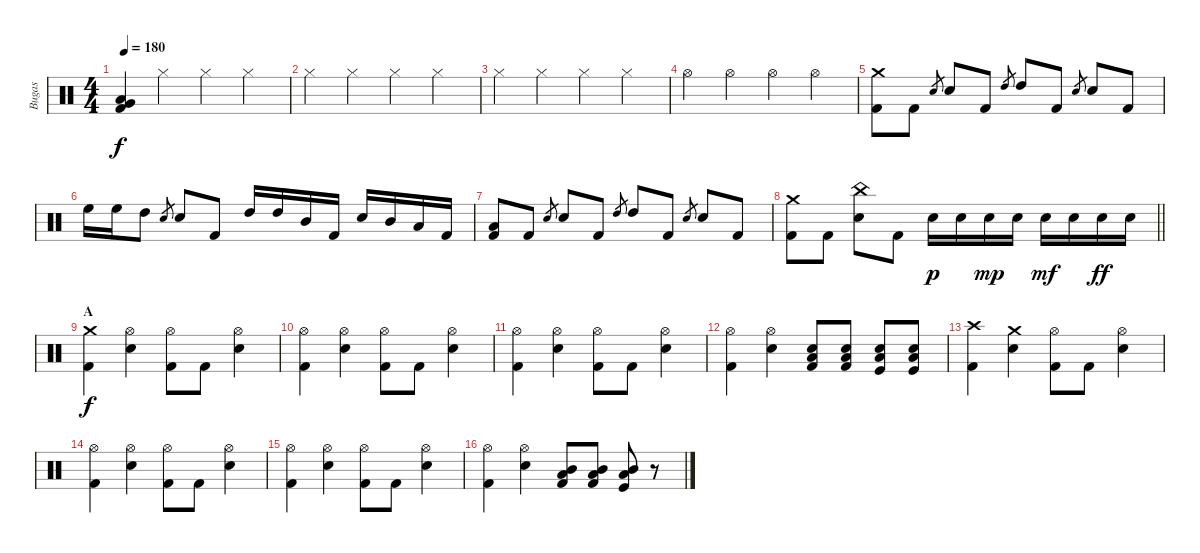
\track ("Bugas" "Bugas") {instrument percussion}
\staff {score}
\articulation defaults
\ts (4 4)
\tempo 180
\clef neutral
\ks c
("Kick (hit) 2" "Very Low Tom (hit)" "Low Tom (hit)").4{dy f} "Hi-Hat (closed)".4 "Hi-Hat (closed)".4 "Hi-Hat (closed)".4 |
"Hi-Hat (closed)".4 "Hi-Hat (closed)".4 "Hi-Hat (closed)".4 "Hi-Hat (closed)".4 |
"Hi-Hat (closed)".4 "Hi-Hat (closed)".4 "Hi-Hat (closed)".4 "Hi-Hat (closed)".4 |
"Hi-Hat (open)".4 "Hi-Hat (open)".4 "Hi-Hat (open)".4 "Hi-Hat (open)".4 |
("Crash medium (hit)" "Kick (hit) 2").8 "Kick (hit) 2".8 "Electric Snare (hit)".8{gr} "Electric Snare (hit)".8 "Kick (hit) 2".8 "High Tom (hit)".8{gr} "High Tom (hit)".8 "Kick (hit) 2".8 "Electric Snare (hit)".8{gr} "Electric Snare (hit)".8 "Kick (hit) 2".8 |
"High Floor Tom (hit)".16 "High Floor Tom (hit)".16 "High Tom (hit)".8 "Electric Snare (hit)".8{gr} "Electric Snare (hit)".8 "Kick (hit) 2".8 "High Tom (hit)".16 "High Tom (hit)".16 "Mid Tom (hit)".16 "Kick (hit) 2".16 "Electric Snare (hit)".16 "Mid Tom (hit)".16 "Low Tom (hit)".16 "Kick (hit) 2".16 |
("Kick (hit) 2" "Low Tom (hit)").8 "Kick (hit) 2".8 "Electric Snare (hit)".8{gr} "Electric Snare (hit)".8 "Kick (hit) 2".8 "High Tom (hit)".8{gr} "High Tom (hit)".8 "Kick (hit) 2".8 "Electric Snare (hit)".8{gr} "Electric Snare (hit)".8 "Kick (hit) 2".8 |
\barLineRight lightlight
("Crash medium (hit)" "Kick (hit) 2").8 "Kick (hit) 2".8 ("China (hit)" "Electric Snare (hit)").8 "Kick (hit) 2".8 "Electric Snare (hit)".16{dy p} "Electric Snare (hit)".16 "Electric Snare (hit)".16{dy mp} "Electric Snare (hit)".16 "Electric Snare (hit)".16{dy mf} "Electric Snare (hit)".16 "Electric Snare (hit)".16{dy ff} "Electric Snare (hit)".16 |
\section ("" "A")
("Crash medium (hit)" "Kick (hit) 2").4{dy f} ("Hi-Hat (open)" "Electric Snare (hit)").4 ("Hi-Hat (open)" "Kick (hit) 2").8 "Kick (hit) 2".8 ("Hi-Hat (open)" "Electric Snare (hit)").4 |
("Hi-Hat (open)" "Kick (hit) 2").4 ("Hi-Hat (open)" "Electric Snare (hit)").4 ("Hi-Hat (open)" "Kick (hit) 2").8 "Kick (hit) 2".8 ("Hi-Hat (open)" "Electric Snare (hit)").4 |
("Hi-Hat (open)" "Kick (hit) 2").4 ("Hi-Hat (open)" "Electric Snare (hit)").4 ("Hi-Hat (open)" "Kick (hit) 2").8 "Kick (hit) 2".8 ("Hi-Hat (open)" "Electric Snare (hit)").4 |
("Hi-Hat (open)" "Kick (hit) 2").4 ("Hi-Hat (open)" "Electric Snare (hit)").4 ("Electric Snare (hit)" "Low Tom (hit)" "Kick (hit) 2").8 ("Electric Snare (hit)" "Low Tom (hit)" "Kick (hit) 2").8 ("Electric Snare (hit)" "Low Tom (hit)" "Kick (hit)").8 ("Electric Snare (hit)" "Low Tom (hit)" "Kick (hit)").8 |
("Crash high (hit)" "Kick (hit) 2").4 ("Crash medium (hit)" "Electric Snare (hit)").4 ("Hi-Hat (open)" "Kick (hit) 2").8 "Kick (hit) 2".8 ("Hi-Hat (open)" "Electric Snare (hit)").4 |
("Hi-Hat (open)" "Kick (hit) 2").4 ("Hi-Hat (open)" "Electric Snare (hit)").4 ("Hi-Hat (open)" "Kick (hit) 2").8 "Kick (hit) 2".8 ("Hi-Hat (open)" "Electric Snare (hit)").4 |
("Hi-Hat (open)" "Kick (hit) 2").4 ("Hi-Hat (open)" "Electric Snare (hit)").4 ("Hi-Hat (open)" "Kick (hit) 2").8 "Kick (hit) 2".8 ("Hi-Hat (open)" "Electric Snare (hit)").4 |
("Hi-Hat (open)" "Kick (hit) 2").4 ("Hi-Hat (open)" "Electric Snare (hit)").4 ("Mid Tom (hit)" "Low Tom (hit)" "Kick (hit) 2").8 ("Mid Tom (hit)" "Low Tom (hit)" "Kick (hit) 2").8 ("Mid Tom (hit)" "Low Tom (hit)" "Kick (hit)").8 r.8
